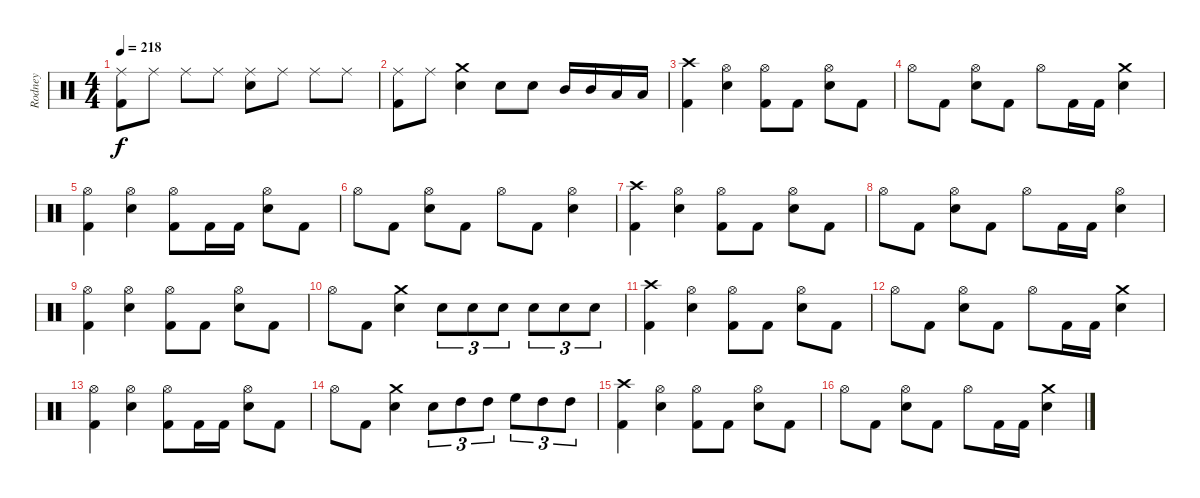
\track ("Rodney" "Rodney") {instrument percussion}
\staff {score}
\articulation defaults
\ts (4 4)
\tempo 218
\clef neutral
\ks c
("Ride (middle)" "Kick (hit) 2").8{dy f} "Ride (middle)".8 "Ride (middle)".8 "Ride (middle)".8 ("Ride (middle)" "Snare (hit) 2").8 "Ride (middle)".8 "Ride (middle)".8 "Ride (middle)".8 |
("Ride (middle)" "Kick (hit) 2").8 "Ride (middle)".8 ("Crash medium (hit)" "Snare (hit) 2").4 "Snare (hit) 2".8 "Snare (hit) 2".8 "Mid Tom (hit)".16 "Mid Tom (hit)".16 "Low Tom (hit)".16 "Low Tom (hit)".16 |
("Crash high (hit)" "Kick (hit) 2").4 ("Hi-Hat (open)" "Snare (hit) 2").4 ("Hi-Hat (open)" "Kick (hit) 2").8 "Kick (hit) 2".8 ("Hi-Hat (open)" "Snare (hit) 2").8 "Kick (hit) 2".8 |
"Hi-Hat (open)".8 "Kick (hit) 2".8 ("Hi-Hat (open)" "Snare (hit) 2").8 "Kick (hit) 2".8 "Hi-Hat (open)".8 "Kick (hit) 2".16 "Kick (hit) 2".16 ("Crash medium (hit)" "Snare (hit) 2").4 |
("Hi-Hat (open)" "Kick (hit) 2").4 ("Hi-Hat (open)" "Snare (hit) 2").4 ("Hi-Hat (open)" "Kick (hit) 2").8 "Kick (hit) 2".16 "Kick (hit) 2".16 ("Hi-Hat (open)" "Snare (hit) 2").8 "Kick (hit) 2".8 |
"Hi-Hat (open)".8 "Kick (hit) 2".8 ("Hi-Hat (open)" "Snare (hit) 2").8 "Kick (hit) 2".8 "Hi-Hat (open)".8 "Kick (hit) 2".8 ("Hi-Hat (open)" "Snare (hit) 2").4 |
("Crash high (hit)" "Kick (hit) 2").4 ("Hi-Hat (open)" "Snare (hit) 2").4 ("Hi-Hat (open)" "Kick (hit) 2").8 "Kick (hit) 2".8 ("Hi-Hat (open)" "Snare (hit) 2").8 "Kick (hit) 2".8 |
"Hi-Hat (open)".8 "Kick (hit) 2".8 ("Hi-Hat (open)" "Snare (hit) 2").8 "Kick (hit) 2".8 "Hi-Hat (open)".8 "Kick (hit) 2".16 "Kick (hit) 2".16 ("Hi-Hat (open)" "Snare (hit) 2").4 |
("Hi-Hat (open)" "Kick (hit) 2").4 ("Hi-Hat (open)" "Snare (hit) 2").4 ("Hi-Hat (open)" "Kick (hit) 2").8 "Kick (hit) 2".8 ("Hi-Hat (open)" "Snare (hit) 2").8 "Kick (hit) 2".8 |
"Hi-Hat (open)".8 "Kick (hit) 2".8 ("Crash medium (hit)" "Snare (hit) 2").4 "Snare (hit) 2".8{tu (3 2)} "Snare (hit) 2".8{tu (3 2)} "Snare (hit) 2".8{tu (3 2)} "Snare (hit) 2".8{tu (3 2)} "Snare (hit) 2".8{tu (3 2)} "Snare (hit) 2".8{tu (3 2)} |
("Crash high (hit)" "Kick (hit) 2").4 ("Hi-Hat (open)" "Snare (hit) 2").4 ("Hi-Hat (open)" "Kick (hit) 2").8 "Kick (hit) 2".8 ("Hi-Hat (open)" "Snare (hit) 2").8 "Kick (hit) 2".8 |
"Hi-Hat (open)".8 "Kick (hit) 2".8 ("Hi-Hat (open)" "Snare (hit) 2").8 "Kick (hit) 2".8 "Hi-Hat (open)".8 "Kick (hit) 2".16 "Kick (hit) 2".16 ("Crash medium (hit)" "Snare (hit) 2").4 |
("Hi-Hat (open)" "Kick (hit) 2").4 ("Hi-Hat (open)" "Snare (hit) 2").4 ("Hi-Hat (open)" "Kick (hit) 2").8 "Kick (hit) 2".16 "Kick (hit) 2".16 ("Hi-Hat (open)" "Snare (hit) 2").8 "Kick (hit) 2".8 |
"Hi-Hat (open)".8 "Kick (hit) 2".8 ("Crash medium (hit)" "Snare (hit) 2").4 "Snare (hit) 2".8{tu (3 2)} "High Tom (hit)".8{tu (3 2)} "High Tom (hit)".8{tu (3 2)} "High Floor Tom (hit)".8{tu (3 2)} "High Tom (hit)".8{tu (3 2)} "High Tom (hit)".8{tu (3 2)} |
("Crash high (hit)" "Kick (hit) 2").4 ("Hi-Hat (open)" "Snare (hit) 2").4 ("Hi-Hat (open)" "Kick (hit) 2").8 "Kick (hit) 2".8 ("Hi-Hat (open)" "Snare (hit) 2").8 "Kick (hit) 2".8 |
"Hi-Hat (open)".8 "Kick (hit) 2".8 ("Hi-Hat (open)" "Snare (hit) 2").8 "Kick (hit) 2".8 "Hi-Hat (open)".8 "Kick (hit) 2".16 "Kick (hit) 2".16 ("Crash medium (hit)" "Snare (hit) 2").4
